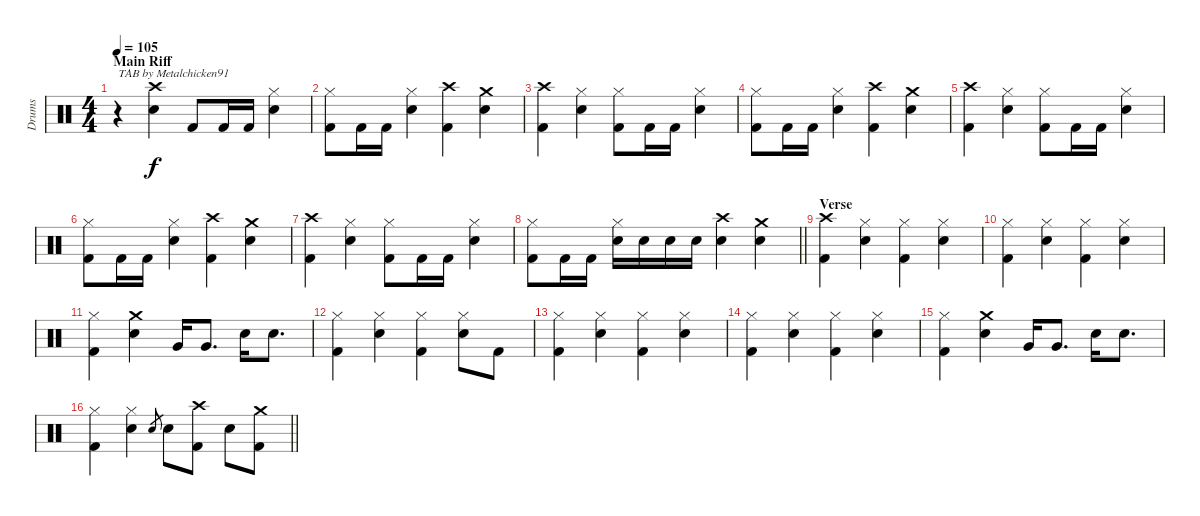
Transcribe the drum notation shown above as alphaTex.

\track ("Drums" "Drums") {instrument percussion}
\staff {score}
\articulation defaults
\ts (4 4)
\section ("" "Main Riff")
\tempo 105
\clef neutral
\ks c
r.4{txt "TAB by Metalchicken91" dy f} ("Crash high (hit)" "Snare (hit) 2").4 "Kick (hit) 2".8 "Kick (hit) 2".16 "Kick (hit) 2".16 ("Hi-Hat (closed)" "Snare (hit) 2").4 |
("Hi-Hat (closed)" "Kick (hit) 2").8 "Kick (hit) 2".16 "Kick (hit) 2".16 ("Hi-Hat (closed)" "Snare (hit) 2").4 ("Crash high (hit)" "Kick (hit) 2").4 ("Crash medium (hit)" "Snare (hit) 2").4 |
("Crash high (hit)" "Kick (hit) 2").4 ("Hi-Hat (closed)" "Snare (hit) 2").4 ("Hi-Hat (closed)" "Kick (hit) 2").8 "Kick (hit) 2".16 "Kick (hit) 2".16 ("Hi-Hat (closed)" "Snare (hit) 2").4 |
("Hi-Hat (closed)" "Kick (hit) 2").8 "Kick (hit) 2".16 "Kick (hit) 2".16 ("Hi-Hat (closed)" "Snare (hit) 2").4 ("Crash high (hit)" "Kick (hit) 2").4 ("Crash medium (hit)" "Snare (hit) 2").4 |
("Crash high (hit)" "Kick (hit) 2").4 ("Hi-Hat (closed)" "Snare (hit) 2").4 ("Hi-Hat (closed)" "Kick (hit) 2").8 "Kick (hit) 2".16 "Kick (hit) 2".16 ("Hi-Hat (closed)" "Snare (hit) 2").4 |
("Hi-Hat (closed)" "Kick (hit) 2").8 "Kick (hit) 2".16 "Kick (hit) 2".16 ("Hi-Hat (closed)" "Snare (hit) 2").4 ("Crash high (hit)" "Kick (hit) 2").4 ("Crash medium (hit)" "Snare (hit) 2").4 |
("Crash high (hit)" "Kick (hit) 2").4 ("Hi-Hat (closed)" "Snare (hit) 2").4 ("Hi-Hat (closed)" "Kick (hit) 2").8 "Kick (hit) 2".16 "Kick (hit) 2".16 ("Hi-Hat (closed)" "Snare (hit) 2").4 |
\barLineRight lightlight
("Hi-Hat (closed)" "Kick (hit) 2").8 "Kick (hit) 2".16 "Kick (hit) 2".16 ("Hi-Hat (closed)" "Snare (hit) 2").16 "Snare (hit) 2".16 "Snare (hit) 2".16 "Snare (hit) 2".16 ("Crash high (hit)" "Snare (hit) 2").4 ("Crash medium (hit)" "Snare (hit) 2").4 |
\section ("" "Verse")
("Crash high (hit)" "Kick (hit) 2").4 ("Hi-Hat (closed)" "Snare (hit) 2").4 ("Hi-Hat (closed)" "Kick (hit) 2").4 ("Hi-Hat (closed)" "Snare (hit) 2").4 |
("Hi-Hat (closed)" "Kick (hit) 2").4 ("Hi-Hat (closed)" "Snare (hit) 2").4 ("Hi-Hat (closed)" "Kick (hit) 2").4 ("Hi-Hat (closed)" "Snare (hit) 2").4 |
("Hi-Hat (closed)" "Kick (hit) 2").4 ("Crash medium (hit)" "Snare (hit) 2").4 "Very Low Tom (hit)".16 "Very Low Tom (hit)".8{d} "Snare (hit) 2".16 "Snare (hit) 2".8{d} |
("Hi-Hat (closed)" "Kick (hit) 2").4 ("Hi-Hat (closed)" "Snare (hit) 2").4 ("Hi-Hat (closed)" "Kick (hit) 2").4 ("Hi-Hat (closed)" "Snare (hit) 2").8 "Kick (hit) 2".8 |
("Hi-Hat (closed)" "Kick (hit) 2").4 ("Hi-Hat (closed)" "Snare (hit) 2").4 ("Hi-Hat (closed)" "Kick (hit) 2").4 ("Hi-Hat (closed)" "Snare (hit) 2").4 |
("Hi-Hat (closed)" "Kick (hit) 2").4 ("Hi-Hat (closed)" "Snare (hit) 2").4 ("Hi-Hat (closed)" "Kick (hit) 2").4 ("Hi-Hat (closed)" "Snare (hit) 2").4 |
("Hi-Hat (closed)" "Kick (hit) 2").4 ("Crash medium (hit)" "Snare (hit) 2").4 "Very Low Tom (hit)".16 "Very Low Tom (hit)".8{d} "Snare (hit) 2".16 "Snare (hit) 2".8{d} |
\barLineRight lightlight
("Hi-Hat (closed)" "Kick (hit) 2").4 ("Hi-Hat (closed)" "Snare (hit) 2").4 "Snare (hit) 2".8{gr} "Snare (hit) 2".8 ("Crash high (hit)" "Kick (hit) 2").8 "Snare (hit) 2".8 ("Crash medium (hit)" "Kick (hit) 2").8
